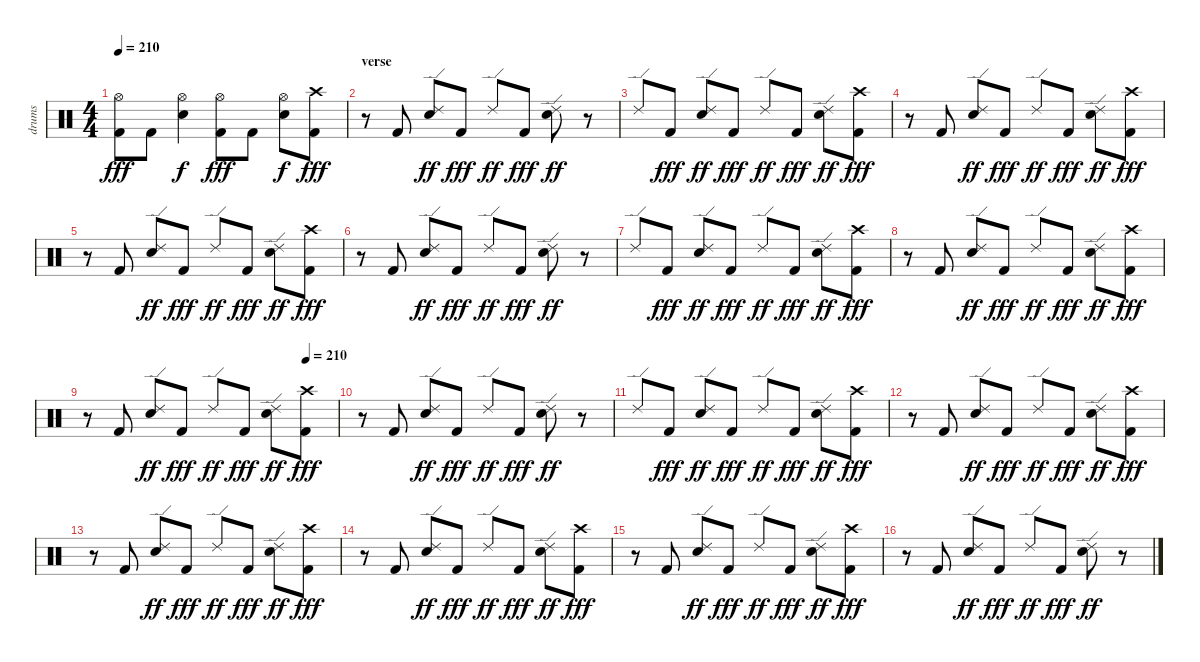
\track ("drums" "drums") {instrument percussion}
\staff {score}
\articulation defaults
\ts (4 4)
\tempo 210
\clef neutral
\ks c
("Hi-Hat (open)" "Kick (hit) 2").8{dy fff} "Kick (hit) 2".8 ("Hi-Hat (open)" "Snare (hit) 2").4{dy f} ("Hi-Hat (open)" "Kick (hit) 2").8{dy fff} "Kick (hit) 2".8 ("Hi-Hat (open)" "Snare (hit) 2").8{dy f} ("Crash high (hit)" "Kick (hit) 2").8{dy fff} |
\section ("" "verse")
r.8 "Kick (hit) 2".8 ("Ride (edge) 2" "Snare (hit) 2").8{dy ff} "Kick (hit) 2".8{dy fff} "Ride (edge) 2".8{dy ff} "Kick (hit) 2".8{dy fff} ("Ride (edge) 2" "Snare (hit) 2").8{dy ff} r.8 |
"Ride (edge) 2".8 "Kick (hit) 2".8{dy fff} ("Ride (edge) 2" "Snare (hit) 2").8{dy ff} "Kick (hit) 2".8{dy fff} "Ride (edge) 2".8{dy ff} "Kick (hit) 2".8{dy fff} ("Ride (edge) 2" "Snare (hit) 2").8{dy ff} ("Crash high (hit)" "Kick (hit) 2").8{dy fff} |
r.8 "Kick (hit) 2".8 ("Ride (edge) 2" "Snare (hit) 2").8{dy ff} "Kick (hit) 2".8{dy fff} "Ride (edge) 2".8{dy ff} "Kick (hit) 2".8{dy fff} ("Ride (edge) 2" "Snare (hit) 2").8{dy ff} ("Crash high (hit)" "Kick (hit) 2").8{dy fff} |
r.8 "Kick (hit) 2".8 ("Ride (edge) 2" "Snare (hit) 2").8{dy ff} "Kick (hit) 2".8{dy fff} "Ride (edge) 2".8{dy ff} "Kick (hit) 2".8{dy fff} ("Ride (edge) 2" "Snare (hit) 2").8{dy ff} ("Crash high (hit)" "Kick (hit) 2").8{dy fff} |
r.8 "Kick (hit) 2".8 ("Ride (edge) 2" "Snare (hit) 2").8{dy ff} "Kick (hit) 2".8{dy fff} "Ride (edge) 2".8{dy ff} "Kick (hit) 2".8{dy fff} ("Ride (edge) 2" "Snare (hit) 2").8{dy ff} r.8 |
"Ride (edge) 2".8 "Kick (hit) 2".8{dy fff} ("Ride (edge) 2" "Snare (hit) 2").8{dy ff} "Kick (hit) 2".8{dy fff} "Ride (edge) 2".8{dy ff} "Kick (hit) 2".8{dy fff} ("Ride (edge) 2" "Snare (hit) 2").8{dy ff} ("Crash high (hit)" "Kick (hit) 2").8{dy fff} |
r.8 "Kick (hit) 2".8 ("Ride (edge) 2" "Snare (hit) 2").8{dy ff} "Kick (hit) 2".8{dy fff} "Ride (edge) 2".8{dy ff} "Kick (hit) 2".8{dy fff} ("Ride (edge) 2" "Snare (hit) 2").8{dy ff} ("Crash high (hit)" "Kick (hit) 2").8{dy fff} |
\tempo (210 0.875)
r.8 "Kick (hit) 2".8 ("Ride (edge) 2" "Snare (hit) 2").8{dy ff} "Kick (hit) 2".8{dy fff} "Ride (edge) 2".8{dy ff} "Kick (hit) 2".8{dy fff} ("Ride (edge) 2" "Snare (hit) 2").8{dy ff} ("Crash high (hit)" "Kick (hit) 2").8{dy fff} |
r.8 "Kick (hit) 2".8 ("Ride (edge) 2" "Snare (hit) 2").8{dy ff} "Kick (hit) 2".8{dy fff} "Ride (edge) 2".8{dy ff} "Kick (hit) 2".8{dy fff} ("Ride (edge) 2" "Snare (hit) 2").8{dy ff} r.8 |
"Ride (edge) 2".8 "Kick (hit) 2".8{dy fff} ("Ride (edge) 2" "Snare (hit) 2").8{dy ff} "Kick (hit) 2".8{dy fff} "Ride (edge) 2".8{dy ff} "Kick (hit) 2".8{dy fff} ("Ride (edge) 2" "Snare (hit) 2").8{dy ff} ("Crash high (hit)" "Kick (hit) 2").8{dy fff} |
r.8 "Kick (hit) 2".8 ("Ride (edge) 2" "Snare (hit) 2").8{dy ff} "Kick (hit) 2".8{dy fff} "Ride (edge) 2".8{dy ff} "Kick (hit) 2".8{dy fff} ("Ride (edge) 2" "Snare (hit) 2").8{dy ff} ("Crash high (hit)" "Kick (hit) 2").8{dy fff} |
r.8 "Kick (hit) 2".8 ("Ride (edge) 2" "Snare (hit) 2").8{dy ff} "Kick (hit) 2".8{dy fff} "Ride (edge) 2".8{dy ff} "Kick (hit) 2".8{dy fff} ("Ride (edge) 2" "Snare (hit) 2").8{dy ff} ("Crash high (hit)" "Kick (hit) 2").8{dy fff} |
r.8 "Kick (hit) 2".8 ("Ride (edge) 2" "Snare (hit) 2").8{dy ff} "Kick (hit) 2".8{dy fff} "Ride (edge) 2".8{dy ff} "Kick (hit) 2".8{dy fff} ("Ride (edge) 2" "Snare (hit) 2").8{dy ff} ("Crash high (hit)" "Kick (hit) 2").8{dy fff} |
r.8 "Kick (hit) 2".8 ("Ride (edge) 2" "Snare (hit) 2").8{dy ff} "Kick (hit) 2".8{dy fff} "Ride (edge) 2".8{dy ff} "Kick (hit) 2".8{dy fff} ("Ride (edge) 2" "Snare (hit) 2").8{dy ff} ("Crash high (hit)" "Kick (hit) 2").8{dy fff} |
r.8 "Kick (hit) 2".8 ("Ride (edge) 2" "Snare (hit) 2").8{dy ff} "Kick (hit) 2".8{dy fff} "Ride (edge) 2".8{dy ff} "Kick (hit) 2".8{dy fff} ("Ride (edge) 2" "Snare (hit) 2").8{dy ff} r.8
